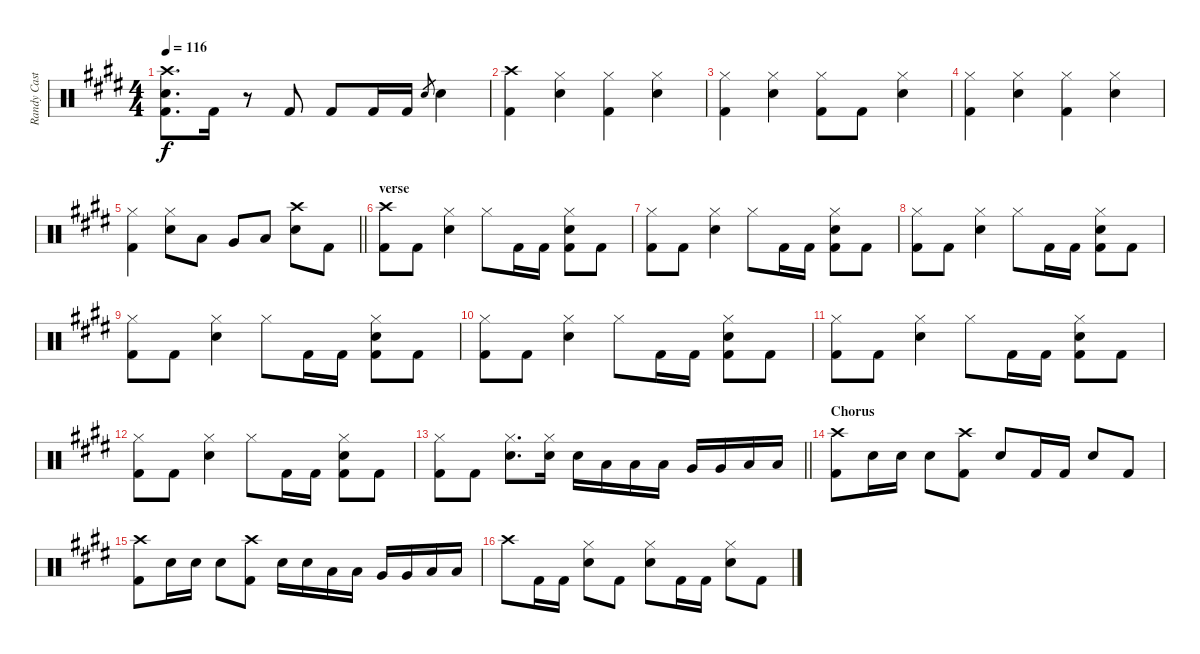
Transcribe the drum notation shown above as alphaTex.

\track ("Randy Castillo" "Randy Cast") {instrument percussion}
\staff {score}
\articulation defaults
\ts (4 4)
\tempo 116
\clef neutral
\ks e
("Snare (hit) 2" "Kick (hit) 2" "Crash high (hit)").8{d dy f} "Kick (hit) 2".16 r.8 "Kick (hit) 2".8 "Kick (hit) 2".8 "Kick (hit) 2".16 "Kick (hit) 2".16 "Snare (hit) 2".8{gr} "Snare (hit) 2".4 |
("Kick (hit) 2" "Crash high (hit)").4 ("Hi-Hat (closed)" "Snare (hit) 2").4 ("Hi-Hat (closed)" "Kick (hit) 2").4 ("Hi-Hat (closed)" "Snare (hit) 2").4 |
("Hi-Hat (closed)" "Kick (hit) 2").4 ("Hi-Hat (closed)" "Snare (hit) 2").4 ("Hi-Hat (closed)" "Kick (hit) 2").8 "Kick (hit) 2".8 ("Hi-Hat (closed)" "Snare (hit) 2").4 |
("Hi-Hat (closed)" "Kick (hit) 2").4 ("Hi-Hat (closed)" "Snare (hit) 2").4 ("Hi-Hat (closed)" "Kick (hit) 2").4 ("Hi-Hat (closed)" "Snare (hit) 2").4 |
\barLineRight lightlight
("Hi-Hat (closed)" "Kick (hit) 2").4 ("Hi-Hat (closed)" "Snare (hit) 2").8 "Low Tom (hit)".8 "Very Low Tom (hit)".8 "Low Floor Tom (hit)".8 ("Snare (hit) 2" "Crash high (hit)").8 "Kick (hit) 2".8 |
\section ("" "verse")
("Kick (hit) 2" "Crash high (hit)").8 "Kick (hit) 2".8 ("Hi-Hat (closed)" "Snare (hit) 2").4 "Hi-Hat (closed)".8 "Kick (hit) 2".16 "Kick (hit) 2".16 ("Hi-Hat (closed)" "Snare (hit) 2" "Kick (hit) 2").8 "Kick (hit) 2".8 |
("Hi-Hat (closed)" "Kick (hit) 2").8 "Kick (hit) 2".8 ("Hi-Hat (closed)" "Snare (hit) 2").4 "Hi-Hat (closed)".8 "Kick (hit) 2".16 "Kick (hit) 2".16 ("Hi-Hat (closed)" "Snare (hit) 2" "Kick (hit) 2").8 "Kick (hit) 2".8 |
("Hi-Hat (closed)" "Kick (hit) 2").8 "Kick (hit) 2".8 ("Hi-Hat (closed)" "Snare (hit) 2").4 "Hi-Hat (closed)".8 "Kick (hit) 2".16 "Kick (hit) 2".16 ("Hi-Hat (closed)" "Snare (hit) 2" "Kick (hit) 2").8 "Kick (hit) 2".8 |
("Hi-Hat (closed)" "Kick (hit) 2").8 "Kick (hit) 2".8 ("Hi-Hat (closed)" "Snare (hit) 2").4 "Hi-Hat (closed)".8 "Kick (hit) 2".16 "Kick (hit) 2".16 ("Hi-Hat (closed)" "Snare (hit) 2" "Kick (hit) 2").8 "Kick (hit) 2".8 |
("Hi-Hat (closed)" "Kick (hit) 2").8 "Kick (hit) 2".8 ("Hi-Hat (closed)" "Snare (hit) 2").4 "Hi-Hat (closed)".8 "Kick (hit) 2".16 "Kick (hit) 2".16 ("Hi-Hat (closed)" "Snare (hit) 2" "Kick (hit) 2").8 "Kick (hit) 2".8 |
("Hi-Hat (closed)" "Kick (hit) 2").8 "Kick (hit) 2".8 ("Hi-Hat (closed)" "Snare (hit) 2").4 "Hi-Hat (closed)".8 "Kick (hit) 2".16 "Kick (hit) 2".16 ("Hi-Hat (closed)" "Snare (hit) 2" "Kick (hit) 2").8 "Kick (hit) 2".8 |
("Hi-Hat (closed)" "Kick (hit) 2").8 "Kick (hit) 2".8 ("Hi-Hat (closed)" "Snare (hit) 2").4 "Hi-Hat (closed)".8 "Kick (hit) 2".16 "Kick (hit) 2".16 ("Hi-Hat (closed)" "Snare (hit) 2" "Kick (hit) 2").8 "Kick (hit) 2".8 |
\barLineRight lightlight
("Hi-Hat (closed)" "Kick (hit) 2").8 "Kick (hit) 2".8 ("Hi-Hat (closed)" "Snare (hit) 2").8{d} ("Hi-Hat (closed)" "Snare (hit) 2").16 "Snare (hit) 2".16 "Low Tom (hit)".16 "Low Tom (hit)".16 "Low Tom (hit)".16 "Very Low Tom (hit)".16 "Very Low Tom (hit)".16 "Low Tom (hit)".16 "Low Tom (hit)".16 |
\section ("" "Chorus")
("Kick (hit) 2" "Crash high (hit)").8 "Snare (hit) 2".16 "Snare (hit) 2".16 "Snare (hit) 2".8 ("Kick (hit) 2" "Crash high (hit)").8 "Snare (hit) 2".8 "Kick (hit) 2".16 "Kick (hit) 2".16 "Snare (hit) 2".8 "Kick (hit) 2".8 |
("Kick (hit) 2" "Crash high (hit)").8 "Snare (hit) 2".16 "Snare (hit) 2".16 "Snare (hit) 2".8 ("Kick (hit) 2" "Crash high (hit)").8 "Snare (hit) 2".16 "Snare (hit) 2".16 "Low Tom (hit)".16 "Low Tom (hit)".16 "Very Low Tom (hit)".16 "Very Low Tom (hit)".16 "Low Floor Tom (hit)".16 "Low Floor Tom (hit)".16 |
"Crash high (hit)".8 "Kick (hit) 2".16 "Kick (hit) 2".16 ("Hi-Hat (closed)" "Snare (hit) 2").8 "Kick (hit) 2".8 ("Hi-Hat (closed)" "Snare (hit) 2").8 "Kick (hit) 2".16 "Kick (hit) 2".16 ("Hi-Hat (closed)" "Snare (hit) 2").8 "Kick (hit) 2".8
